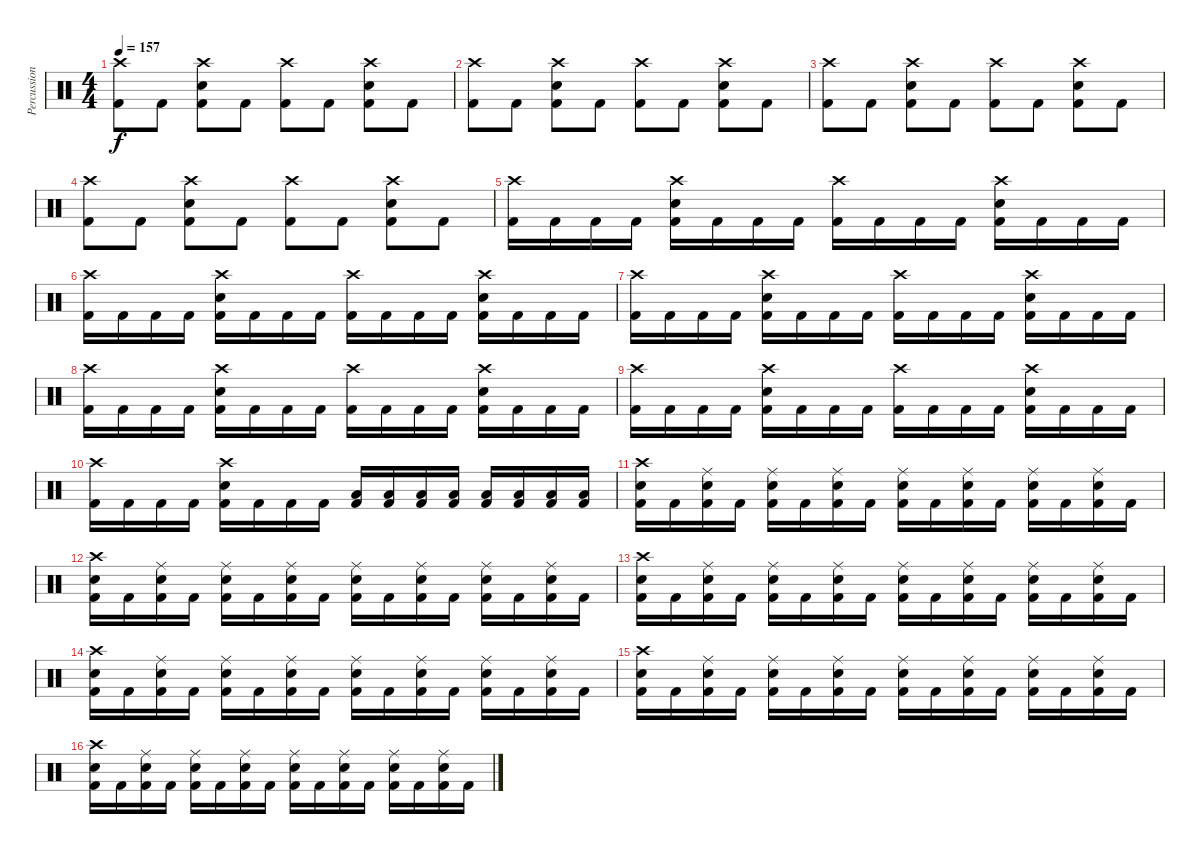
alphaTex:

\track ("Percussion" "Percussion") {instrument percussion}
\staff {score}
\articulation defaults
\ts (4 4)
\tempo 157
\clef neutral
\ks c
("Crash high (hit)" "Kick (hit) 2").8{dy f} "Kick (hit) 2".8 ("Crash high (hit)" "Electric Snare (hit)" "Kick (hit) 2").8 "Kick (hit) 2".8 ("Crash high (hit)" "Kick (hit) 2").8 "Kick (hit) 2".8 ("Crash high (hit)" "Electric Snare (hit)" "Kick (hit) 2").8 "Kick (hit) 2".8 |
("Crash high (hit)" "Kick (hit) 2").8 "Kick (hit) 2".8 ("Crash high (hit)" "Electric Snare (hit)" "Kick (hit) 2").8 "Kick (hit) 2".8 ("Crash high (hit)" "Kick (hit) 2").8 "Kick (hit) 2".8 ("Crash high (hit)" "Electric Snare (hit)" "Kick (hit) 2").8 "Kick (hit) 2".8 |
("Crash high (hit)" "Kick (hit) 2").8 "Kick (hit) 2".8 ("Crash high (hit)" "Electric Snare (hit)" "Kick (hit) 2").8 "Kick (hit) 2".8 ("Crash high (hit)" "Kick (hit) 2").8 "Kick (hit) 2".8 ("Crash high (hit)" "Electric Snare (hit)" "Kick (hit) 2").8 "Kick (hit) 2".8 |
("Crash high (hit)" "Kick (hit) 2").8 "Kick (hit) 2".8 ("Crash high (hit)" "Electric Snare (hit)" "Kick (hit) 2").8 "Kick (hit) 2".8 ("Crash high (hit)" "Kick (hit) 2").8 "Kick (hit) 2".8 ("Crash high (hit)" "Electric Snare (hit)" "Kick (hit) 2").8 "Kick (hit) 2".8 |
("Crash high (hit)" "Kick (hit) 2").16 "Kick (hit) 2".16 "Kick (hit) 2".16 "Kick (hit) 2".16 ("Crash high (hit)" "Electric Snare (hit)" "Kick (hit) 2").16 "Kick (hit) 2".16 "Kick (hit) 2".16 "Kick (hit) 2".16 ("Crash high (hit)" "Kick (hit) 2").16 "Kick (hit) 2".16 "Kick (hit) 2".16 "Kick (hit) 2".16 ("Crash high (hit)" "Electric Snare (hit)" "Kick (hit) 2").16 "Kick (hit) 2".16 "Kick (hit) 2".16 "Kick (hit) 2".16 |
("Crash high (hit)" "Kick (hit) 2").16 "Kick (hit) 2".16 "Kick (hit) 2".16 "Kick (hit) 2".16 ("Crash high (hit)" "Electric Snare (hit)" "Kick (hit) 2").16 "Kick (hit) 2".16 "Kick (hit) 2".16 "Kick (hit) 2".16 ("Crash high (hit)" "Kick (hit) 2").16 "Kick (hit) 2".16 "Kick (hit) 2".16 "Kick (hit) 2".16 ("Crash high (hit)" "Electric Snare (hit)" "Kick (hit) 2").16 "Kick (hit) 2".16 "Kick (hit) 2".16 "Kick (hit) 2".16 |
("Crash high (hit)" "Kick (hit) 2").16 "Kick (hit) 2".16 "Kick (hit) 2".16 "Kick (hit) 2".16 ("Crash high (hit)" "Electric Snare (hit)" "Kick (hit) 2").16 "Kick (hit) 2".16 "Kick (hit) 2".16 "Kick (hit) 2".16 ("Crash high (hit)" "Kick (hit) 2").16 "Kick (hit) 2".16 "Kick (hit) 2".16 "Kick (hit) 2".16 ("Crash high (hit)" "Electric Snare (hit)" "Kick (hit) 2").16 "Kick (hit) 2".16 "Kick (hit) 2".16 "Kick (hit) 2".16 |
("Crash high (hit)" "Kick (hit) 2").16 "Kick (hit) 2".16 "Kick (hit) 2".16 "Kick (hit) 2".16 ("Crash high (hit)" "Electric Snare (hit)" "Kick (hit) 2").16 "Kick (hit) 2".16 "Kick (hit) 2".16 "Kick (hit) 2".16 ("Crash high (hit)" "Kick (hit) 2").16 "Kick (hit) 2".16 "Kick (hit) 2".16 "Kick (hit) 2".16 ("Crash high (hit)" "Electric Snare (hit)" "Kick (hit) 2").16 "Kick (hit) 2".16 "Kick (hit) 2".16 "Kick (hit) 2".16 |
("Crash high (hit)" "Kick (hit) 2").16 "Kick (hit) 2".16 "Kick (hit) 2".16 "Kick (hit) 2".16 ("Crash high (hit)" "Electric Snare (hit)" "Kick (hit) 2").16 "Kick (hit) 2".16 "Kick (hit) 2".16 "Kick (hit) 2".16 ("Crash high (hit)" "Kick (hit) 2").16 "Kick (hit) 2".16 "Kick (hit) 2".16 "Kick (hit) 2".16 ("Crash high (hit)" "Electric Snare (hit)" "Kick (hit) 2").16 "Kick (hit) 2".16 "Kick (hit) 2".16 "Kick (hit) 2".16 |
("Crash high (hit)" "Kick (hit) 2").16 "Kick (hit) 2".16 "Kick (hit) 2".16 "Kick (hit) 2".16 ("Crash high (hit)" "Electric Snare (hit)" "Kick (hit) 2").16 "Kick (hit) 2".16 "Kick (hit) 2".16 "Kick (hit) 2".16 ("Low Tom (hit)" "Kick (hit) 2").16 ("Low Tom (hit)" "Kick (hit) 2").16 ("Low Tom (hit)" "Kick (hit) 2").16 ("Low Tom (hit)" "Kick (hit) 2").16 ("Low Floor Tom (hit)" "Kick (hit) 2").16 ("Low Floor Tom (hit)" "Kick (hit) 2").16 ("Low Floor Tom (hit)" "Kick (hit) 2").16 ("Low Floor Tom (hit)" "Kick (hit) 2").16 |
("Crash high (hit)" "Electric Snare (hit)" "Kick (hit) 2").16 "Kick (hit) 2".16 ("Ride (middle)" "Electric Snare (hit)" "Kick (hit) 2").16 "Kick (hit) 2".16 ("Ride (middle)" "Electric Snare (hit)" "Kick (hit) 2").16 "Kick (hit) 2".16 ("Ride (middle)" "Electric Snare (hit)" "Kick (hit) 2").16 "Kick (hit) 2".16 ("Ride (middle)" "Electric Snare (hit)" "Kick (hit) 2").16 "Kick (hit) 2".16 ("Ride (middle)" "Electric Snare (hit)" "Kick (hit) 2").16 "Kick (hit) 2".16 ("Ride (middle)" "Electric Snare (hit)" "Kick (hit) 2").16 "Kick (hit) 2".16 ("Ride (middle)" "Electric Snare (hit)" "Kick (hit) 2").16 "Kick (hit) 2".16 |
("Crash high (hit)" "Electric Snare (hit)" "Kick (hit) 2").16 "Kick (hit) 2".16 ("Ride (middle)" "Electric Snare (hit)" "Kick (hit) 2").16 "Kick (hit) 2".16 ("Ride (middle)" "Electric Snare (hit)" "Kick (hit) 2").16 "Kick (hit) 2".16 ("Ride (middle)" "Electric Snare (hit)" "Kick (hit) 2").16 "Kick (hit) 2".16 ("Ride (middle)" "Electric Snare (hit)" "Kick (hit) 2").16 "Kick (hit) 2".16 ("Ride (middle)" "Electric Snare (hit)" "Kick (hit) 2").16 "Kick (hit) 2".16 ("Ride (middle)" "Electric Snare (hit)" "Kick (hit) 2").16 "Kick (hit) 2".16 ("Ride (middle)" "Electric Snare (hit)" "Kick (hit) 2").16 "Kick (hit) 2".16 |
("Crash high (hit)" "Electric Snare (hit)" "Kick (hit) 2").16 "Kick (hit) 2".16 ("Ride (middle)" "Electric Snare (hit)" "Kick (hit) 2").16 "Kick (hit) 2".16 ("Ride (middle)" "Electric Snare (hit)" "Kick (hit) 2").16 "Kick (hit) 2".16 ("Ride (middle)" "Electric Snare (hit)" "Kick (hit) 2").16 "Kick (hit) 2".16 ("Ride (middle)" "Electric Snare (hit)" "Kick (hit) 2").16 "Kick (hit) 2".16 ("Ride (middle)" "Electric Snare (hit)" "Kick (hit) 2").16 "Kick (hit) 2".16 ("Ride (middle)" "Electric Snare (hit)" "Kick (hit) 2").16 "Kick (hit) 2".16 ("Ride (middle)" "Electric Snare (hit)" "Kick (hit) 2").16 "Kick (hit) 2".16 |
("Crash high (hit)" "Electric Snare (hit)" "Kick (hit) 2").16 "Kick (hit) 2".16 ("Ride (middle)" "Electric Snare (hit)" "Kick (hit) 2").16 "Kick (hit) 2".16 ("Ride (middle)" "Electric Snare (hit)" "Kick (hit) 2").16 "Kick (hit) 2".16 ("Ride (middle)" "Electric Snare (hit)" "Kick (hit) 2").16 "Kick (hit) 2".16 ("Ride (middle)" "Electric Snare (hit)" "Kick (hit) 2").16 "Kick (hit) 2".16 ("Ride (middle)" "Electric Snare (hit)" "Kick (hit) 2").16 "Kick (hit) 2".16 ("Ride (middle)" "Electric Snare (hit)" "Kick (hit) 2").16 "Kick (hit) 2".16 ("Ride (middle)" "Electric Snare (hit)" "Kick (hit) 2").16 "Kick (hit) 2".16 |
("Crash high (hit)" "Electric Snare (hit)" "Kick (hit) 2").16 "Kick (hit) 2".16 ("Ride (middle)" "Electric Snare (hit)" "Kick (hit) 2").16 "Kick (hit) 2".16 ("Ride (middle)" "Electric Snare (hit)" "Kick (hit) 2").16 "Kick (hit) 2".16 ("Ride (middle)" "Electric Snare (hit)" "Kick (hit) 2").16 "Kick (hit) 2".16 ("Ride (middle)" "Electric Snare (hit)" "Kick (hit) 2").16 "Kick (hit) 2".16 ("Ride (middle)" "Electric Snare (hit)" "Kick (hit) 2").16 "Kick (hit) 2".16 ("Ride (middle)" "Electric Snare (hit)" "Kick (hit) 2").16 "Kick (hit) 2".16 ("Ride (middle)" "Electric Snare (hit)" "Kick (hit) 2").16 "Kick (hit) 2".16 |
("Crash high (hit)" "Electric Snare (hit)" "Kick (hit) 2").16 "Kick (hit) 2".16 ("Ride (middle)" "Electric Snare (hit)" "Kick (hit) 2").16 "Kick (hit) 2".16 ("Ride (middle)" "Electric Snare (hit)" "Kick (hit) 2").16 "Kick (hit) 2".16 ("Ride (middle)" "Electric Snare (hit)" "Kick (hit) 2").16 "Kick (hit) 2".16 ("Ride (middle)" "Electric Snare (hit)" "Kick (hit) 2").16 "Kick (hit) 2".16 ("Ride (middle)" "Electric Snare (hit)" "Kick (hit) 2").16 "Kick (hit) 2".16 ("Ride (middle)" "Electric Snare (hit)" "Kick (hit) 2").16 "Kick (hit) 2".16 ("Ride (middle)" "Electric Snare (hit)" "Kick (hit) 2").16 "Kick (hit) 2".16
